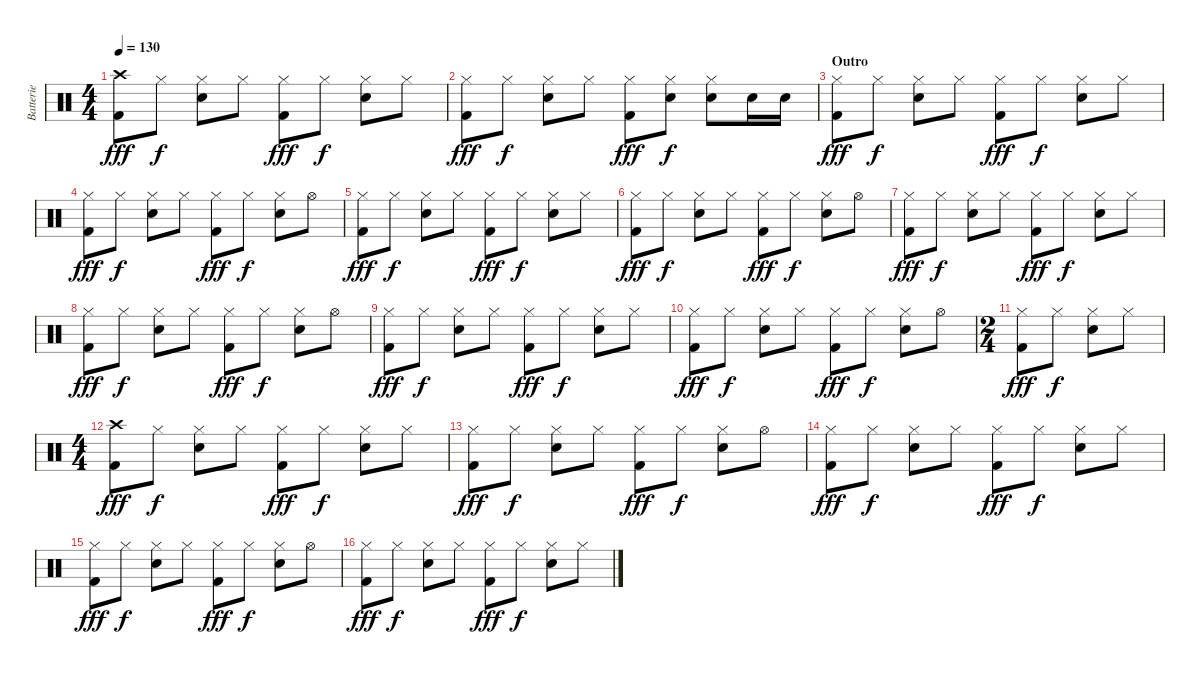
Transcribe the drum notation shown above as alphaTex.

\track ("Batterie" "Batterie") {instrument percussion}
\staff {score}
\articulation defaults
\ts (4 4)
\tempo 130
\clef neutral
\ks c
("Crash high (hit)" "Kick (hit) 2").8{dy fff} "Hi-Hat (closed)".8{dy f} ("Hi-Hat (closed)" "Snare (hit) 2").8 "Hi-Hat (closed)".8 ("Hi-Hat (closed)" "Kick (hit) 2").8{dy fff} "Hi-Hat (closed)".8{dy f} ("Hi-Hat (closed)" "Snare (hit) 2").8 "Hi-Hat (closed)".8 |
("Hi-Hat (closed)" "Kick (hit) 2").8{dy fff} "Hi-Hat (closed)".8{dy f} ("Hi-Hat (closed)" "Snare (hit) 2").8 "Hi-Hat (closed)".8 ("Hi-Hat (closed)" "Kick (hit) 2").8{dy fff} ("Hi-Hat (closed)" "Snare (hit) 2").8{dy f} ("Hi-Hat (closed)" "Snare (hit) 2").8 "Snare (hit) 2".16 "Snare (hit) 2".16 |
\section ("" "Outro")
("Hi-Hat (closed)" "Kick (hit) 2").8{dy fff} "Hi-Hat (closed)".8{dy f} ("Hi-Hat (closed)" "Snare (hit) 2").8 "Hi-Hat (closed)".8 ("Hi-Hat (closed)" "Kick (hit) 2").8{dy fff} "Hi-Hat (closed)".8{dy f} ("Hi-Hat (closed)" "Snare (hit) 2").8 "Hi-Hat (closed)".8 |
("Hi-Hat (closed)" "Kick (hit) 2").8{dy fff} "Hi-Hat (closed)".8{dy f} ("Hi-Hat (closed)" "Snare (hit) 2").8 "Hi-Hat (closed)".8 ("Hi-Hat (closed)" "Kick (hit) 2").8{dy fff} "Hi-Hat (closed)".8{dy f} ("Hi-Hat (closed)" "Snare (hit) 2").8 "Hi-Hat (open)".8 |
("Hi-Hat (closed)" "Kick (hit) 2").8{dy fff} "Hi-Hat (closed)".8{dy f} ("Hi-Hat (closed)" "Snare (hit) 2").8 "Hi-Hat (closed)".8 ("Hi-Hat (closed)" "Kick (hit) 2").8{dy fff} "Hi-Hat (closed)".8{dy f} ("Hi-Hat (closed)" "Snare (hit) 2").8 "Hi-Hat (closed)".8 |
("Hi-Hat (closed)" "Kick (hit) 2").8{dy fff} "Hi-Hat (closed)".8{dy f} ("Hi-Hat (closed)" "Snare (hit) 2").8 "Hi-Hat (closed)".8 ("Hi-Hat (closed)" "Kick (hit) 2").8{dy fff} "Hi-Hat (closed)".8{dy f} ("Hi-Hat (closed)" "Snare (hit) 2").8 "Hi-Hat (open)".8 |
("Hi-Hat (closed)" "Kick (hit) 2").8{dy fff} "Hi-Hat (closed)".8{dy f} ("Hi-Hat (closed)" "Snare (hit) 2").8 "Hi-Hat (closed)".8 ("Hi-Hat (closed)" "Kick (hit) 2").8{dy fff} "Hi-Hat (closed)".8{dy f} ("Hi-Hat (closed)" "Snare (hit) 2").8 "Hi-Hat (closed)".8 |
("Hi-Hat (closed)" "Kick (hit) 2").8{dy fff} "Hi-Hat (closed)".8{dy f} ("Hi-Hat (closed)" "Snare (hit) 2").8 "Hi-Hat (closed)".8 ("Hi-Hat (closed)" "Kick (hit) 2").8{dy fff} "Hi-Hat (closed)".8{dy f} ("Hi-Hat (closed)" "Snare (hit) 2").8 "Hi-Hat (open)".8 |
("Hi-Hat (closed)" "Kick (hit) 2").8{dy fff} "Hi-Hat (closed)".8{dy f} ("Hi-Hat (closed)" "Snare (hit) 2").8 "Hi-Hat (closed)".8 ("Hi-Hat (closed)" "Kick (hit) 2").8{dy fff} "Hi-Hat (closed)".8{dy f} ("Hi-Hat (closed)" "Snare (hit) 2").8 "Hi-Hat (closed)".8 |
("Hi-Hat (closed)" "Kick (hit) 2").8{dy fff} "Hi-Hat (closed)".8{dy f} ("Hi-Hat (closed)" "Snare (hit) 2").8 "Hi-Hat (closed)".8 ("Hi-Hat (closed)" "Kick (hit) 2").8{dy fff} "Hi-Hat (closed)".8{dy f} ("Hi-Hat (closed)" "Snare (hit) 2").8 "Hi-Hat (open)".8 |
\ts (2 4)
("Hi-Hat (closed)" "Kick (hit) 2").8{dy fff} "Hi-Hat (closed)".8{dy f} ("Hi-Hat (closed)" "Snare (hit) 2").8 "Hi-Hat (closed)".8 |
\ts (4 4)
("Crash high (hit)" "Kick (hit) 2").8{dy fff} "Hi-Hat (closed)".8{dy f} ("Hi-Hat (closed)" "Snare (hit) 2").8 "Hi-Hat (closed)".8 ("Hi-Hat (closed)" "Kick (hit) 2").8{dy fff} "Hi-Hat (closed)".8{dy f} ("Hi-Hat (closed)" "Snare (hit) 2").8 "Hi-Hat (closed)".8 |
("Hi-Hat (closed)" "Kick (hit) 2").8{dy fff} "Hi-Hat (closed)".8{dy f} ("Hi-Hat (closed)" "Snare (hit) 2").8 "Hi-Hat (closed)".8 ("Hi-Hat (closed)" "Kick (hit) 2").8{dy fff} "Hi-Hat (closed)".8{dy f} ("Hi-Hat (closed)" "Snare (hit) 2").8 "Hi-Hat (open)".8 |
("Hi-Hat (closed)" "Kick (hit) 2").8{dy fff} "Hi-Hat (closed)".8{dy f} ("Hi-Hat (closed)" "Snare (hit) 2").8 "Hi-Hat (closed)".8 ("Hi-Hat (closed)" "Kick (hit) 2").8{dy fff} "Hi-Hat (closed)".8{dy f} ("Hi-Hat (closed)" "Snare (hit) 2").8 "Hi-Hat (closed)".8 |
("Hi-Hat (closed)" "Kick (hit) 2").8{dy fff} "Hi-Hat (closed)".8{dy f} ("Hi-Hat (closed)" "Snare (hit) 2").8 "Hi-Hat (closed)".8 ("Hi-Hat (closed)" "Kick (hit) 2").8{dy fff} "Hi-Hat (closed)".8{dy f} ("Hi-Hat (closed)" "Snare (hit) 2").8 "Hi-Hat (open)".8 |
("Hi-Hat (closed)" "Kick (hit) 2").8{dy fff} "Hi-Hat (closed)".8{dy f} ("Hi-Hat (closed)" "Snare (hit) 2").8 "Hi-Hat (closed)".8 ("Hi-Hat (closed)" "Kick (hit) 2").8{dy fff} "Hi-Hat (closed)".8{dy f} ("Hi-Hat (closed)" "Snare (hit) 2").8 "Hi-Hat (closed)".8
